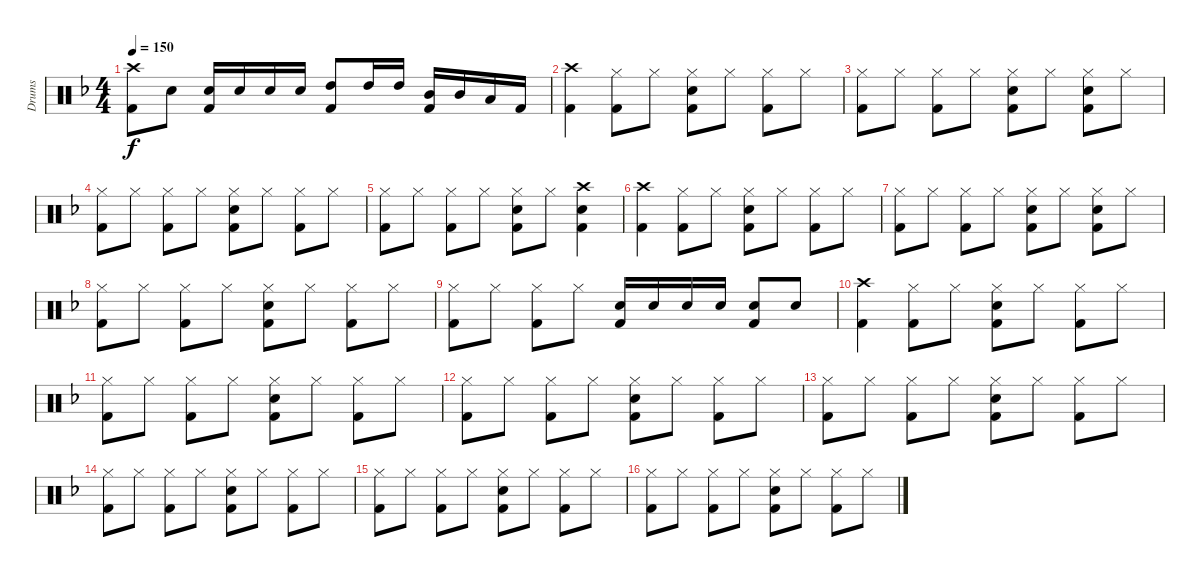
\track ("Drums" "Drums") {instrument percussion}
\staff {score}
\articulation defaults
\ts (4 4)
\tempo 150
\clef neutral
\ks f
("Crash high (hit)" "Kick (hit) 2").8{dy f} "Electric Snare (hit)".8 ("Electric Snare (hit)" "Kick (hit) 2").16 "Electric Snare (hit)".16 "Electric Snare (hit)".16 "Electric Snare (hit)".16 ("High Tom (hit)" "Kick (hit) 2").8 "High Tom (hit)".16 "High Tom (hit)".16 ("Mid Tom (hit)" "Kick (hit) 2").16 "Mid Tom (hit)".16 "Low Tom (hit)".16 "Kick (hit) 2".16 |
("Crash high (hit)" "Kick (hit) 2").4 ("Hi-Hat (closed)" "Kick (hit) 2").8 "Hi-Hat (closed)".8 ("Hi-Hat (closed)" "Electric Snare (hit)" "Kick (hit) 2").8 "Hi-Hat (closed)".8 ("Hi-Hat (closed)" "Kick (hit) 2").8 "Hi-Hat (closed)".8 |
("Hi-Hat (closed)" "Kick (hit) 2").8 "Hi-Hat (closed)".8 ("Hi-Hat (closed)" "Kick (hit) 2").8 "Hi-Hat (closed)".8 ("Hi-Hat (closed)" "Electric Snare (hit)" "Kick (hit) 2").8 "Hi-Hat (closed)".8 ("Hi-Hat (closed)" "Electric Snare (hit)" "Kick (hit) 2").8 "Hi-Hat (closed)".8 |
("Hi-Hat (closed)" "Kick (hit) 2").8 "Hi-Hat (closed)".8 ("Hi-Hat (closed)" "Kick (hit) 2").8 "Hi-Hat (closed)".8 ("Hi-Hat (closed)" "Electric Snare (hit)" "Kick (hit) 2").8 "Hi-Hat (closed)".8 ("Hi-Hat (closed)" "Kick (hit) 2").8 "Hi-Hat (closed)".8 |
("Hi-Hat (closed)" "Kick (hit) 2").8 "Hi-Hat (closed)".8 ("Hi-Hat (closed)" "Kick (hit) 2").8 "Hi-Hat (closed)".8 ("Hi-Hat (closed)" "Electric Snare (hit)" "Kick (hit) 2").8 "Hi-Hat (closed)".8 ("Crash high (hit)" "Electric Snare (hit)" "Kick (hit) 2").4 |
("Crash high (hit)" "Kick (hit) 2").4 ("Hi-Hat (closed)" "Kick (hit) 2").8 "Hi-Hat (closed)".8 ("Hi-Hat (closed)" "Electric Snare (hit)" "Kick (hit) 2").8 "Hi-Hat (closed)".8 ("Hi-Hat (closed)" "Kick (hit) 2").8 "Hi-Hat (closed)".8 |
("Hi-Hat (closed)" "Kick (hit) 2").8 "Hi-Hat (closed)".8 ("Hi-Hat (closed)" "Kick (hit) 2").8 "Hi-Hat (closed)".8 ("Hi-Hat (closed)" "Electric Snare (hit)" "Kick (hit) 2").8 "Hi-Hat (closed)".8 ("Hi-Hat (closed)" "Electric Snare (hit)" "Kick (hit) 2").8 "Hi-Hat (closed)".8 |
("Hi-Hat (closed)" "Kick (hit) 2").8 "Hi-Hat (closed)".8 ("Hi-Hat (closed)" "Kick (hit) 2").8 "Hi-Hat (closed)".8 ("Hi-Hat (closed)" "Electric Snare (hit)" "Kick (hit) 2").8 "Hi-Hat (closed)".8 ("Hi-Hat (closed)" "Kick (hit) 2").8 "Hi-Hat (closed)".8 |
("Hi-Hat (closed)" "Kick (hit) 2").8 "Hi-Hat (closed)".8 ("Hi-Hat (closed)" "Kick (hit) 2").8 "Hi-Hat (closed)".8 ("Electric Snare (hit)" "Kick (hit) 2").16 "Electric Snare (hit)".16 "Electric Snare (hit)".16 "Electric Snare (hit)".16 ("Electric Snare (hit)" "Kick (hit) 2").8 "Electric Snare (hit)".8 |
("Crash high (hit)" "Kick (hit) 2").4 ("Hi-Hat (closed)" "Kick (hit) 2").8 "Hi-Hat (closed)".8 ("Hi-Hat (closed)" "Electric Snare (hit)" "Kick (hit) 2").8 "Hi-Hat (closed)".8 ("Hi-Hat (closed)" "Kick (hit) 2").8 "Hi-Hat (closed)".8 |
("Hi-Hat (closed)" "Kick (hit) 2").8 "Hi-Hat (closed)".8 ("Hi-Hat (closed)" "Kick (hit) 2").8 "Hi-Hat (closed)".8 ("Hi-Hat (closed)" "Electric Snare (hit)" "Kick (hit) 2").8 "Hi-Hat (closed)".8 ("Hi-Hat (closed)" "Kick (hit) 2").8 "Hi-Hat (closed)".8 |
("Hi-Hat (closed)" "Kick (hit) 2").8 "Hi-Hat (closed)".8 ("Hi-Hat (closed)" "Kick (hit) 2").8 "Hi-Hat (closed)".8 ("Hi-Hat (closed)" "Electric Snare (hit)" "Kick (hit) 2").8 "Hi-Hat (closed)".8 ("Hi-Hat (closed)" "Kick (hit) 2").8 "Hi-Hat (closed)".8 |
("Hi-Hat (closed)" "Kick (hit) 2").8 "Hi-Hat (closed)".8 ("Hi-Hat (closed)" "Kick (hit) 2").8 "Hi-Hat (closed)".8 ("Hi-Hat (closed)" "Electric Snare (hit)" "Kick (hit) 2").8 "Hi-Hat (closed)".8 ("Hi-Hat (closed)" "Kick (hit) 2").8 "Hi-Hat (closed)".8 |
("Hi-Hat (closed)" "Kick (hit) 2").8 "Hi-Hat (closed)".8 ("Hi-Hat (closed)" "Kick (hit) 2").8 "Hi-Hat (closed)".8 ("Hi-Hat (closed)" "Electric Snare (hit)" "Kick (hit) 2").8 "Hi-Hat (closed)".8 ("Hi-Hat (closed)" "Kick (hit) 2").8 "Hi-Hat (closed)".8 |
("Hi-Hat (closed)" "Kick (hit) 2").8 "Hi-Hat (closed)".8 ("Hi-Hat (closed)" "Kick (hit) 2").8 "Hi-Hat (closed)".8 ("Hi-Hat (closed)" "Electric Snare (hit)" "Kick (hit) 2").8 "Hi-Hat (closed)".8 ("Hi-Hat (closed)" "Kick (hit) 2").8 "Hi-Hat (closed)".8 |
("Hi-Hat (closed)" "Kick (hit) 2").8 "Hi-Hat (closed)".8 ("Hi-Hat (closed)" "Kick (hit) 2").8 "Hi-Hat (closed)".8 ("Hi-Hat (closed)" "Electric Snare (hit)" "Kick (hit) 2").8 "Hi-Hat (closed)".8 ("Hi-Hat (closed)" "Kick (hit) 2").8 "Hi-Hat (closed)".8
